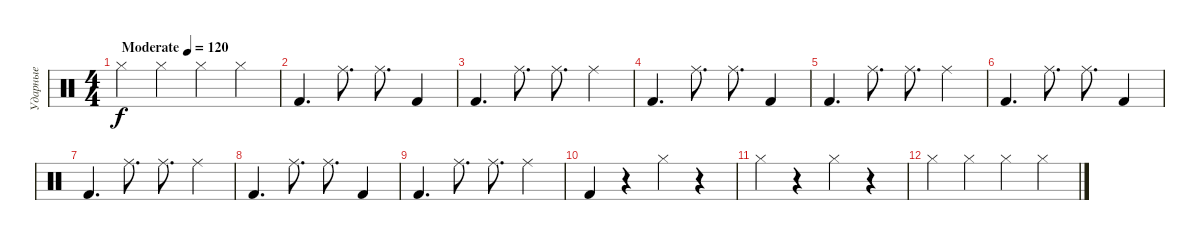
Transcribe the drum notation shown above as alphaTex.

\track ("Ударные" "Ударные") {instrument percussion}
\staff {score}
\articulation defaults
\ts (4 4)
\tempo (120 "Moderate")
\clef neutral
\ks c "Hi-Hat (closed)".4{dy f} "Hi-Hat (closed)".4 "Hi-Hat (closed)".4 "Hi-Hat (closed)".4
|
"Kick (hit) 2".4{d} "Ride (middle)".8{d} "Ride (middle)".8{d} "Kick (hit) 2".4 |
"Kick (hit) 2".4{d} "Ride (middle)".8{d} "Ride (middle)".8{d} "Ride (middle)".4 |
"Kick (hit) 2".4{d} "Ride (middle)".8{d} "Ride (middle)".8{d} "Kick (hit) 2".4 |
"Kick (hit) 2".4{d} "Ride (middle)".8{d} "Ride (middle)".8{d} "Ride (middle)".4 |
"Kick (hit) 2".4{d} "Ride (middle)".8{d} "Ride (middle)".8{d} "Kick (hit) 2".4 |
"Kick (hit) 2".4{d} "Ride (middle)".8{d} "Ride (middle)".8{d} "Ride (middle)".4 |
"Kick (hit) 2".4{d} "Ride (middle)".8{d} "Ride (middle)".8{d} "Kick (hit) 2".4 |
"Kick (hit) 2".4{d} "Ride (middle)".8{d} "Ride (middle)".8{d} "Ride (middle)".4 |
"Kick (hit) 2".4 r.4 "Hi-Hat (closed)".4 r.4 |
"Hi-Hat (closed)".4 r.4 "Hi-Hat (closed)".4 r.4 |
"Hi-Hat (closed)".4 "Hi-Hat (closed)".4 "Hi-Hat (closed)".4 "Hi-Hat (closed)".4
